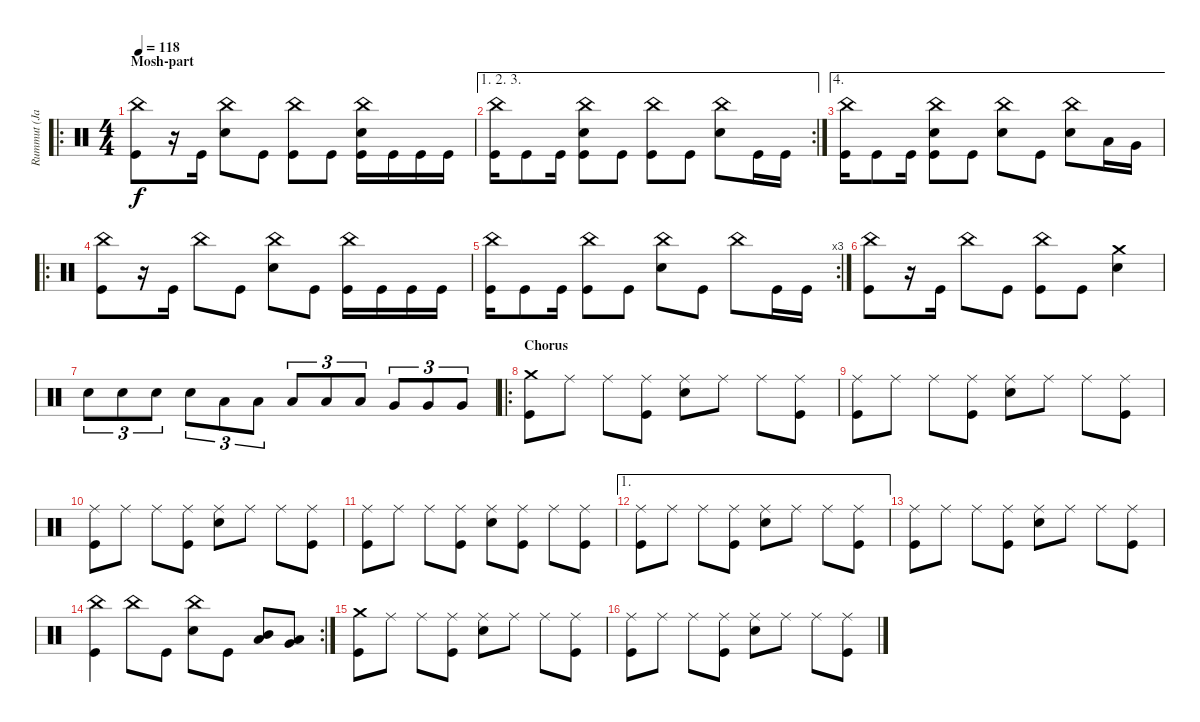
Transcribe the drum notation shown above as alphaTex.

\track ("Rummut (Janne)" "Rummut (Ja") {instrument percussion}
\staff {score}
\articulation defaults
\ro
\ts (4 4)
\section ("" "Mosh-part")
\tempo 118
\clef neutral
\ks c
("China (hit)" "Kick (hit)").8{dy f} r.16 "Kick (hit)".16 ("China (hit)" "Snare (hit) 2").8 "Kick (hit)".8 ("China (hit)" "Kick (hit)").8 "Kick (hit)".8 ("China (hit)" "Snare (hit) 2" "Kick (hit)").16 "Kick (hit)".16 "Kick (hit)".16 "Kick (hit)".16 |
\ae (1 2 3)
\rc 2
("China (hit)" "Kick (hit)").16 "Kick (hit)".8 "Kick (hit)".16 ("China (hit)" "Snare (hit) 2" "Kick (hit)").8 "Kick (hit)".8 ("China (hit)" "Kick (hit)").8 "Kick (hit)".8 ("China (hit)" "Snare (hit) 2").8 "Kick (hit)".16 "Kick (hit)".16 |
\ae 4
("China (hit)" "Kick (hit)").16 "Kick (hit)".8 "Kick (hit)".16 ("China (hit)" "Snare (hit) 2" "Kick (hit)").8 "Kick (hit)".8 ("China (hit)" "Snare (hit) 2").8 "Kick (hit)".8 ("China (hit)" "Snare (hit) 2").8 "Low Tom (hit)".16 "Very Low Tom (hit)".16 |
\ro
("China (hit)" "Kick (hit)").8 r.16 "Kick (hit)".16 "China (hit)".8 "Kick (hit)".8 ("China (hit)" "Snare (hit) 2").8 "Kick (hit)".8 ("China (hit)" "Kick (hit)").16 "Kick (hit)".16 "Kick (hit)".16 "Kick (hit)".16 |
\rc 3
("China (hit)" "Kick (hit)").16 "Kick (hit)".8 "Kick (hit)".16 ("China (hit)" "Kick (hit)").8 "Kick (hit)".8 ("China (hit)" "Snare (hit) 2").8 "Kick (hit)".8 "China (hit)".8 "Kick (hit)".16 "Kick (hit)".16 |
("China (hit)" "Kick (hit)").8 r.16 "Kick (hit)".16 "China (hit)".8 "Kick (hit)".8 ("China (hit)" "Kick (hit)").8 "Kick (hit)".8 ("Crash medium (hit)" "Snare (hit) 2").4 |
"Snare (hit) 2".8{tu (3 2)} "Snare (hit) 2".8{tu (3 2)} "Snare (hit) 2".8{tu (3 2)} "Snare (hit) 2".8{tu (3 2)} "Low Tom (hit)".8{tu (3 2)} "Low Tom (hit)".8{tu (3 2)} "Low Tom (hit)".8{tu (3 2)} "Low Tom (hit)".8{tu (3 2)} "Low Tom (hit)".8{tu (3 2)} "Very Low Tom (hit)".8{tu (3 2)} "Very Low Tom (hit)".8{tu (3 2)} "Very Low Tom (hit)".8{tu (3 2)} |
\ro
\section ("" "Chorus")
("Crash medium (hit)" "Kick (hit)").8 "Ride (middle)".8 "Ride (middle)".8 ("Ride (middle)" "Kick (hit)").8 ("Ride (middle)" "Snare (hit) 2").8 "Ride (middle)".8 "Ride (middle)".8 ("Ride (middle)" "Kick (hit)").8 |
("Ride (middle)" "Kick (hit)").8 "Ride (middle)".8 "Ride (middle)".8 ("Ride (middle)" "Kick (hit)").8 ("Ride (middle)" "Snare (hit) 2").8 "Ride (middle)".8 "Ride (middle)".8 ("Ride (middle)" "Kick (hit)").8 |
("Ride (middle)" "Kick (hit)").8 "Ride (middle)".8 "Ride (middle)".8 ("Ride (middle)" "Kick (hit)").8 ("Ride (middle)" "Snare (hit) 2").8 "Ride (middle)".8 "Ride (middle)".8 ("Ride (middle)" "Kick (hit)").8 |
("Ride (middle)" "Kick (hit)").8 "Ride (middle)".8 "Ride (middle)".8 ("Ride (middle)" "Kick (hit)").8 ("Ride (middle)" "Snare (hit) 2").8 ("Ride (middle)" "Kick (hit)").8 "Ride (middle)".8 ("Ride (middle)" "Kick (hit)").8 |
\ae 1
("Ride (middle)" "Kick (hit)").8 "Ride (middle)".8 "Ride (middle)".8 ("Ride (middle)" "Kick (hit)").8 ("Ride (middle)" "Snare (hit) 2").8 "Ride (middle)".8 "Ride (middle)".8 ("Ride (middle)" "Kick (hit)").8 |
("Ride (middle)" "Kick (hit)").8 "Ride (middle)".8 "Ride (middle)".8 ("Ride (middle)" "Kick (hit)").8 ("Ride (middle)" "Snare (hit) 2").8 "Ride (middle)".8 "Ride (middle)".8 ("Ride (middle)" "Kick (hit)").8 |
\rc 2
("China (hit)" "Kick (hit)").4 "China (hit)".8 "Kick (hit)".8 ("China (hit)" "Snare (hit) 2").8 "Kick (hit)".8 ("Mid Tom (hit)" "Low Tom (hit)").8 ("Low Tom (hit)" "Very Low Tom (hit)").8 |
("Crash medium (hit)" "Kick (hit)").8 "Ride (middle)".8 "Ride (middle)".8 ("Ride (middle)" "Kick (hit)").8 ("Ride (middle)" "Snare (hit) 2").8 "Ride (middle)".8 "Ride (middle)".8 ("Ride (middle)" "Kick (hit)").8 |
("Ride (middle)" "Kick (hit)").8 "Ride (middle)".8 "Ride (middle)".8 ("Ride (middle)" "Kick (hit)").8 ("Ride (middle)" "Snare (hit) 2").8 "Ride (middle)".8 "Ride (middle)".8 ("Ride (middle)" "Kick (hit)").8
